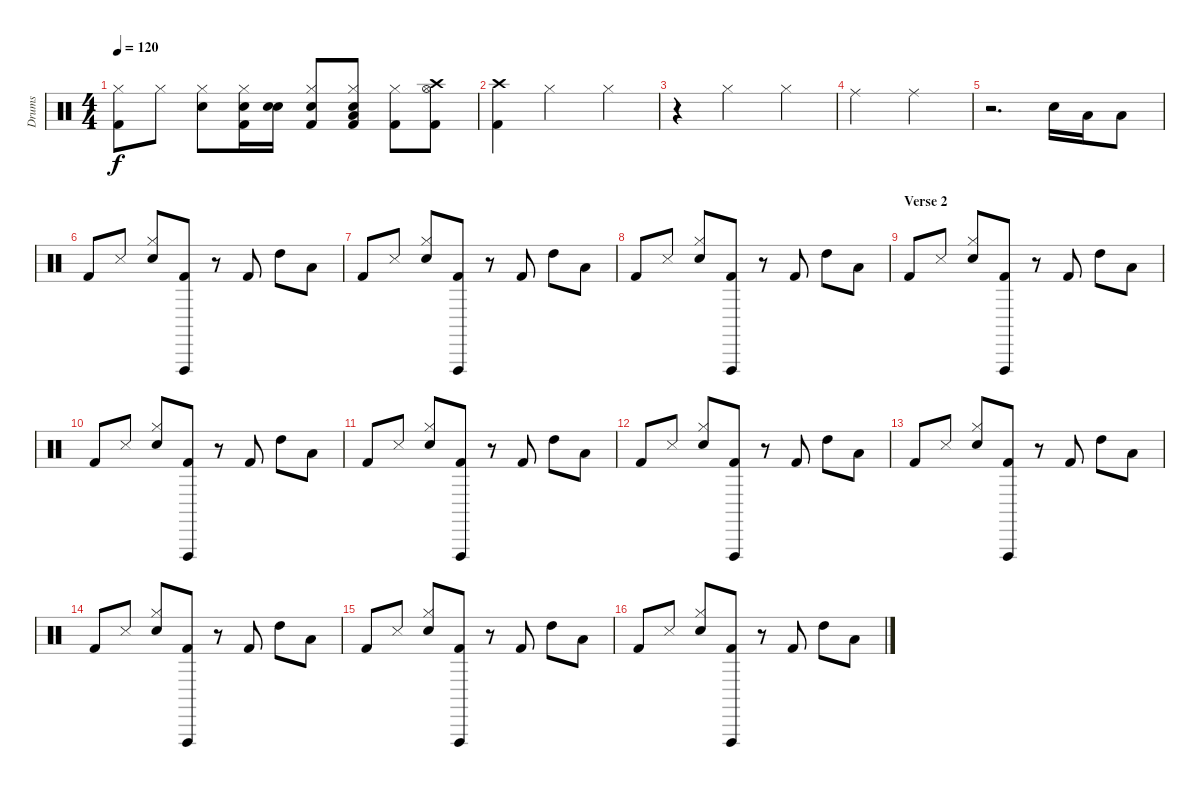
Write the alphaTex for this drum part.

\track ("Drums" "Drums") {instrument percussion}
\staff {score}
\articulation defaults
\ts (4 4)
\tempo 120
\clef neutral
\ks c
("Kick (hit) 2" "Hi-Hat (closed)").8{dy f} "Hi-Hat (closed)".8 ("Snare (hit) 2" "Hi-Hat (closed)").8 ("Kick (hit) 2" "Snare (hit) 2" "Hi-Hat (closed)").16 ("Snare (hit) 2" "Snare (hit) 2").16 ("Snare (hit) 2" "Kick (hit) 2" "Hi-Hat (closed)").8 ("Kick (hit) 2" "Snare (hit) 2" "Hi-Hat (closed)" "Low Floor Tom (hit)").8 ("Kick (hit) 2" "Hi-Hat (closed)").8 ("Kick (hit) 2" "Crash high (hit)" "Hi-Hat (open)").8 |
("Kick (hit) 2" "Crash high (hit)").4 "Hi-Hat (closed)".2 "Hi-Hat (closed)".4 |
r.4 "Hi-Hat (closed)".2 "Hi-Hat (closed)".4 |
"Ride (middle)".2 "Ride (middle)".2 |
r.2{d} "Snare (hit) 2".16 "Low Tom (hit)".16 "Low Floor Tom (hit)".8 |
"Kick (hit) 2".8 "Snare (side stick) 3".8 ("Snare (hit) 2" "Hi-Hat (closed)").8 ("Kick (hit) 2" "Vibraslap (hit)").8 r.8 "Kick (hit) 2".8 "High Tom (hit)".8 "Low Tom (hit)".8 |
"Kick (hit) 2".8 "Snare (side stick) 3".8 ("Snare (hit) 2" "Hi-Hat (closed)").8 ("Kick (hit) 2" "Vibraslap (hit)").8 r.8 "Kick (hit) 2".8 "High Tom (hit)".8 "Low Tom (hit)".8 |
"Kick (hit) 2".8 "Snare (side stick) 3".8 ("Snare (hit) 2" "Hi-Hat (closed)").8 ("Kick (hit) 2" "Vibraslap (hit)").8 r.8 "Kick (hit) 2".8 "High Tom (hit)".8 "Low Tom (hit)".8 |
\section ("" "Verse 2")
"Kick (hit) 2".8 "Snare (side stick) 3".8 ("Snare (hit) 2" "Hi-Hat (closed)").8 ("Kick (hit) 2" "Vibraslap (hit)").8 r.8 "Kick (hit) 2".8 "High Tom (hit)".8 "Low Tom (hit)".8 |
"Kick (hit) 2".8 "Snare (side stick) 3".8 ("Snare (hit) 2" "Hi-Hat (closed)").8 ("Kick (hit) 2" "Vibraslap (hit)").8 r.8 "Kick (hit) 2".8 "High Tom (hit)".8 "Low Tom (hit)".8 |
"Kick (hit) 2".8 "Snare (side stick) 3".8 ("Snare (hit) 2" "Hi-Hat (closed)").8 ("Kick (hit) 2" "Vibraslap (hit)").8 r.8 "Kick (hit) 2".8 "High Tom (hit)".8 "Low Tom (hit)".8 |
"Kick (hit) 2".8 "Snare (side stick) 3".8 ("Snare (hit) 2" "Hi-Hat (closed)").8 ("Kick (hit) 2" "Vibraslap (hit)").8 r.8 "Kick (hit) 2".8 "High Tom (hit)".8 "Low Tom (hit)".8 |
"Kick (hit) 2".8 "Snare (side stick) 3".8 ("Snare (hit) 2" "Hi-Hat (closed)").8 ("Kick (hit) 2" "Vibraslap (hit)").8 r.8 "Kick (hit) 2".8 "High Tom (hit)".8 "Low Tom (hit)".8 |
"Kick (hit) 2".8 "Snare (side stick) 3".8 ("Snare (hit) 2" "Hi-Hat (closed)").8 ("Kick (hit) 2" "Vibraslap (hit)").8 r.8 "Kick (hit) 2".8 "High Tom (hit)".8 "Low Tom (hit)".8 |
"Kick (hit) 2".8 "Snare (side stick) 3".8 ("Snare (hit) 2" "Hi-Hat (closed)").8 ("Kick (hit) 2" "Vibraslap (hit)").8 r.8 "Kick (hit) 2".8 "High Tom (hit)".8 "Low Tom (hit)".8 |
"Kick (hit) 2".8 "Snare (side stick) 3".8 ("Snare (hit) 2" "Hi-Hat (closed)").8 ("Kick (hit) 2" "Vibraslap (hit)").8 r.8 "Kick (hit) 2".8 "High Tom (hit)".8 "Low Tom (hit)".8
